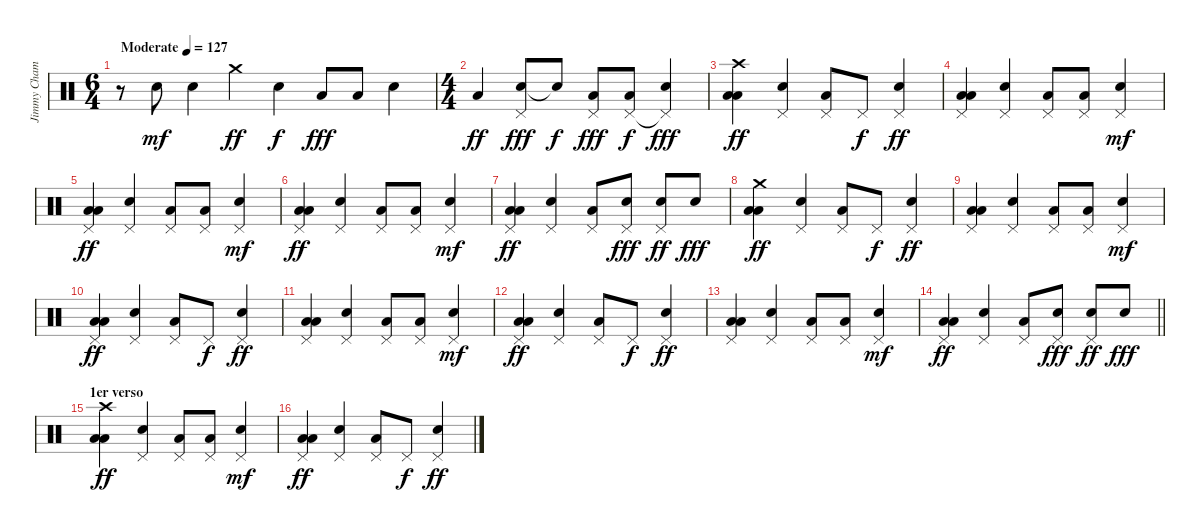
\track ("Jimmy Chamberlin" "Jimmy Cham") {instrument percussion}
\staff {score}
\articulation defaults
\ts (6 4)
\tempo (127 "Moderate")
\clef neutral
\ks c
r.8{dy mf} "Snare (hit) 2".8 "Snare (hit) 2".4 "Crash medium (hit)".4{dy ff} "Snare (hit) 2".4{dy f} "Low Floor Tom (hit)".8{dy fff} "Low Floor Tom (hit)".8 "Snare (hit) 2".4 |
\ts (4 4)
"Low Floor Tom (hit)".4{dy ff} ("Snare (hit) 2" "Pedal Hi-Hat (hit)").8{dy fff} "Snare (hit) 2"{t}.8{dy f} ("Low Floor Tom (hit)" "Pedal Hi-Hat (hit)").8{dy fff} ("Low Floor Tom (hit)" "Pedal Hi-Hat (hit)").8{dy f} ("Snare (hit) 2" "Pedal Hi-Hat (hit)"{t}).4{dy fff} |
("Low Floor Tom (hit)" "Low Tom (hit)" "Crash high (hit)").4{dy ff} ("Snare (hit) 2" "Pedal Hi-Hat (hit)").4 ("Low Floor Tom (hit)" "Pedal Hi-Hat (hit)").8 "Pedal Hi-Hat (hit)".8{dy f} ("Snare (hit) 2" "Pedal Hi-Hat (hit)").4{dy ff} |
("Low Floor Tom (hit)" "Low Tom (hit)" "Pedal Hi-Hat (hit)").4 ("Snare (hit) 2" "Pedal Hi-Hat (hit)").4 ("Low Floor Tom (hit)" "Pedal Hi-Hat (hit)").8 ("Low Floor Tom (hit)" "Pedal Hi-Hat (hit)").8 ("Snare (hit) 2" "Pedal Hi-Hat (hit)").4{dy mf} |
("Low Floor Tom (hit)" "Low Tom (hit)" "Pedal Hi-Hat (hit)").4{dy ff} ("Snare (hit) 2" "Pedal Hi-Hat (hit)").4 ("Low Floor Tom (hit)" "Pedal Hi-Hat (hit)").8 ("Low Floor Tom (hit)" "Pedal Hi-Hat (hit)").8 ("Snare (hit) 2" "Pedal Hi-Hat (hit)").4{dy mf} |
("Low Floor Tom (hit)" "Low Tom (hit)" "Pedal Hi-Hat (hit)").4{dy ff} ("Snare (hit) 2" "Pedal Hi-Hat (hit)").4 ("Low Floor Tom (hit)" "Pedal Hi-Hat (hit)").8 ("Low Floor Tom (hit)" "Pedal Hi-Hat (hit)").8 ("Snare (hit) 2" "Pedal Hi-Hat (hit)").4{dy mf} |
("Low Floor Tom (hit)" "Low Tom (hit)" "Pedal Hi-Hat (hit)").4{dy ff} ("Snare (hit) 2" "Pedal Hi-Hat (hit)").4 ("Low Floor Tom (hit)" "Pedal Hi-Hat (hit)").8 ("Snare (hit) 2" "Pedal Hi-Hat (hit)").8{dy fff} ("Snare (hit) 2" "Pedal Hi-Hat (hit)").8{dy ff} "Snare (hit) 2".8{dy fff} |
("Low Floor Tom (hit)" "Low Tom (hit)" "Crash medium (hit)").4{dy ff} ("Snare (hit) 2" "Pedal Hi-Hat (hit)").4 ("Low Floor Tom (hit)" "Pedal Hi-Hat (hit)").8 "Pedal Hi-Hat (hit)".8{dy f} ("Snare (hit) 2" "Pedal Hi-Hat (hit)").4{dy ff} |
("Low Floor Tom (hit)" "Low Tom (hit)" "Pedal Hi-Hat (hit)").4 ("Snare (hit) 2" "Pedal Hi-Hat (hit)").4 ("Low Floor Tom (hit)" "Pedal Hi-Hat (hit)").8 ("Low Floor Tom (hit)" "Pedal Hi-Hat (hit)").8 ("Snare (hit) 2" "Pedal Hi-Hat (hit)").4{dy mf} |
("Low Floor Tom (hit)" "Low Tom (hit)" "Pedal Hi-Hat (hit)").4{dy ff} ("Snare (hit) 2" "Pedal Hi-Hat (hit)").4 ("Low Floor Tom (hit)" "Pedal Hi-Hat (hit)").8 "Pedal Hi-Hat (hit)".8{dy f} ("Snare (hit) 2" "Pedal Hi-Hat (hit)").4{dy ff} |
("Low Floor Tom (hit)" "Low Tom (hit)" "Pedal Hi-Hat (hit)").4 ("Snare (hit) 2" "Pedal Hi-Hat (hit)").4 ("Low Floor Tom (hit)" "Pedal Hi-Hat (hit)").8 ("Low Floor Tom (hit)" "Pedal Hi-Hat (hit)").8 ("Snare (hit) 2" "Pedal Hi-Hat (hit)").4{dy mf} |
("Low Floor Tom (hit)" "Low Tom (hit)" "Pedal Hi-Hat (hit)").4{dy ff} ("Snare (hit) 2" "Pedal Hi-Hat (hit)").4 ("Low Floor Tom (hit)" "Pedal Hi-Hat (hit)").8 "Pedal Hi-Hat (hit)".8{dy f} ("Snare (hit) 2" "Pedal Hi-Hat (hit)").4{dy ff} |
("Low Floor Tom (hit)" "Low Tom (hit)" "Pedal Hi-Hat (hit)").4 ("Snare (hit) 2" "Pedal Hi-Hat (hit)").4 ("Low Floor Tom (hit)" "Pedal Hi-Hat (hit)").8 ("Low Floor Tom (hit)" "Pedal Hi-Hat (hit)").8 ("Snare (hit) 2" "Pedal Hi-Hat (hit)").4{dy mf} |
\barLineRight lightlight
("Low Floor Tom (hit)" "Low Tom (hit)" "Pedal Hi-Hat (hit)").4{dy ff} ("Snare (hit) 2" "Pedal Hi-Hat (hit)").4 ("Low Floor Tom (hit)" "Pedal Hi-Hat (hit)").8 ("Snare (hit) 2" "Pedal Hi-Hat (hit)").8{dy fff} ("Snare (hit) 2" "Pedal Hi-Hat (hit)").8{dy ff} "Snare (hit) 2".8{dy fff} |
\section ("" "1er verso")
("Low Floor Tom (hit)" "Low Tom (hit)" "Crash high (hit)").4{dy ff} ("Snare (hit) 2" "Pedal Hi-Hat (hit)").4 ("Low Floor Tom (hit)" "Pedal Hi-Hat (hit)").8 ("Low Floor Tom (hit)" "Pedal Hi-Hat (hit)").8 ("Snare (hit) 2" "Pedal Hi-Hat (hit)").4{dy mf} |
("Low Floor Tom (hit)" "Low Tom (hit)" "Pedal Hi-Hat (hit)").4{dy ff} ("Snare (hit) 2" "Pedal Hi-Hat (hit)").4 ("Low Floor Tom (hit)" "Pedal Hi-Hat (hit)").8 "Pedal Hi-Hat (hit)".8{dy f} ("Snare (hit) 2" "Pedal Hi-Hat (hit)").4{dy ff}
